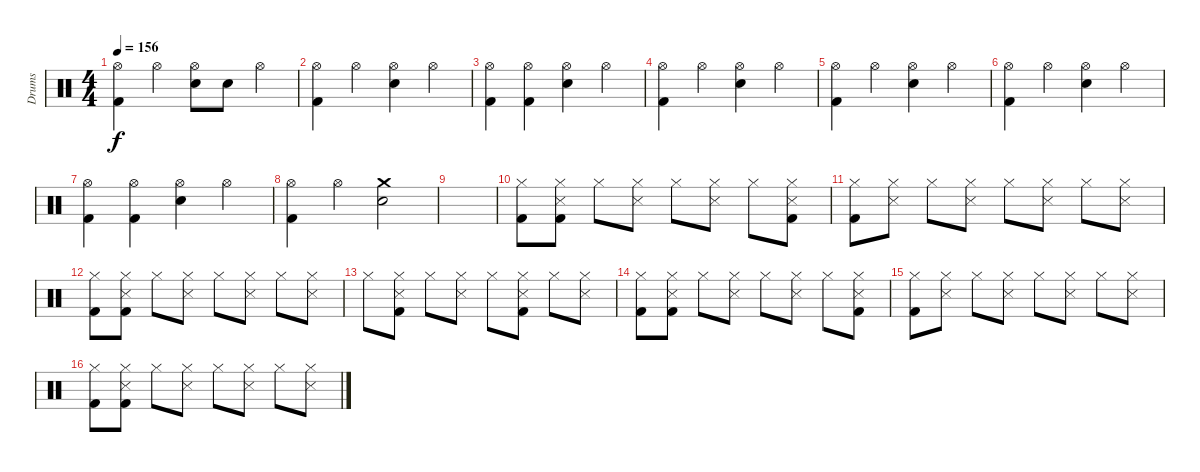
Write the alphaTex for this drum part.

\track ("Drums" "Drums") {instrument percussion}
\staff {score}
\articulation defaults
\ts (4 4)
\tempo 156
\clef neutral
\ks c
("Hi-Hat (open)" "Kick (hit) 2").4{dy f} "Hi-Hat (open)".4 ("Hi-Hat (open)" "Electric Snare (hit)").8 "Electric Snare (hit)".8 "Hi-Hat (open)".4 |
("Hi-Hat (open)" "Kick (hit) 2").4 "Hi-Hat (open)".4 ("Hi-Hat (open)" "Electric Snare (hit)").4 "Hi-Hat (open)".4 |
("Hi-Hat (open)" "Kick (hit) 2").4 ("Hi-Hat (open)" "Kick (hit) 2").4 ("Hi-Hat (open)" "Electric Snare (hit)").4 "Hi-Hat (open)".4 |
("Hi-Hat (open)" "Kick (hit) 2").4 "Hi-Hat (open)".4 ("Hi-Hat (open)" "Electric Snare (hit)").4 "Hi-Hat (open)".4 |
("Hi-Hat (open)" "Kick (hit) 2").4 "Hi-Hat (open)".4 ("Hi-Hat (open)" "Electric Snare (hit)").4 "Hi-Hat (open)".4 |
("Hi-Hat (open)" "Kick (hit) 2").4 "Hi-Hat (open)".4 ("Hi-Hat (open)" "Electric Snare (hit)").4 "Hi-Hat (open)".4 |
("Hi-Hat (open)" "Kick (hit) 2").4 ("Hi-Hat (open)" "Kick (hit) 2").4 ("Hi-Hat (open)" "Electric Snare (hit)").4 "Hi-Hat (open)".4 |
("Hi-Hat (open)" "Kick (hit) 2").4 "Hi-Hat (open)".4 ("Crash medium (hit)" "Electric Snare (hit)").2 |
|
("Hi-Hat (closed)" "Kick (hit) 2").8 ("Hi-Hat (closed)" "Snare (side stick) 3" "Kick (hit) 2").8 "Hi-Hat (closed)".8 ("Hi-Hat (closed)" "Snare (side stick) 3").8 "Hi-Hat (closed)".8 ("Hi-Hat (closed)" "Snare (side stick) 3").8 "Hi-Hat (closed)".8 ("Hi-Hat (closed)" "Snare (side stick) 3" "Kick (hit) 2").8 |
("Hi-Hat (closed)" "Kick (hit) 2").8 ("Hi-Hat (closed)" "Snare (side stick) 3").8 "Hi-Hat (closed)".8 ("Hi-Hat (closed)" "Snare (side stick) 3").8 "Hi-Hat (closed)".8 ("Hi-Hat (closed)" "Snare (side stick) 3").8 "Hi-Hat (closed)".8 ("Hi-Hat (closed)" "Snare (side stick) 3").8 |
("Hi-Hat (closed)" "Kick (hit) 2").8 ("Hi-Hat (closed)" "Snare (side stick) 3" "Kick (hit) 2").8 "Hi-Hat (closed)".8 ("Hi-Hat (closed)" "Snare (side stick) 3").8 "Hi-Hat (closed)".8 ("Hi-Hat (closed)" "Snare (side stick) 3").8 "Hi-Hat (closed)".8 ("Hi-Hat (closed)" "Snare (side stick) 3").8 |
"Hi-Hat (closed)".8 ("Hi-Hat (closed)" "Snare (side stick) 3" "Kick (hit) 2").8 "Hi-Hat (closed)".8 ("Hi-Hat (closed)" "Snare (side stick) 3").8 "Hi-Hat (closed)".8 ("Hi-Hat (closed)" "Snare (side stick) 3" "Kick (hit) 2").8 "Hi-Hat (closed)".8 ("Hi-Hat (closed)" "Snare (side stick) 3").8 |
("Hi-Hat (closed)" "Kick (hit) 2").8 ("Hi-Hat (closed)" "Snare (side stick) 3" "Kick (hit) 2").8 "Hi-Hat (closed)".8 ("Hi-Hat (closed)" "Snare (side stick) 3").8 "Hi-Hat (closed)".8 ("Hi-Hat (closed)" "Snare (side stick) 3").8 "Hi-Hat (closed)".8 ("Hi-Hat (closed)" "Snare (side stick) 3" "Kick (hit) 2").8 |
("Hi-Hat (closed)" "Kick (hit) 2").8 ("Hi-Hat (closed)" "Snare (side stick) 3").8 "Hi-Hat (closed)".8 ("Hi-Hat (closed)" "Snare (side stick) 3").8 "Hi-Hat (closed)".8 ("Hi-Hat (closed)" "Snare (side stick) 3").8 "Hi-Hat (closed)".8 ("Hi-Hat (closed)" "Snare (side stick) 3").8 |
("Hi-Hat (closed)" "Kick (hit) 2").8 ("Hi-Hat (closed)" "Snare (side stick) 3" "Kick (hit) 2").8 "Hi-Hat (closed)".8 ("Hi-Hat (closed)" "Snare (side stick) 3").8 "Hi-Hat (closed)".8 ("Hi-Hat (closed)" "Snare (side stick) 3").8 "Hi-Hat (closed)".8 ("Hi-Hat (closed)" "Snare (side stick) 3").8
